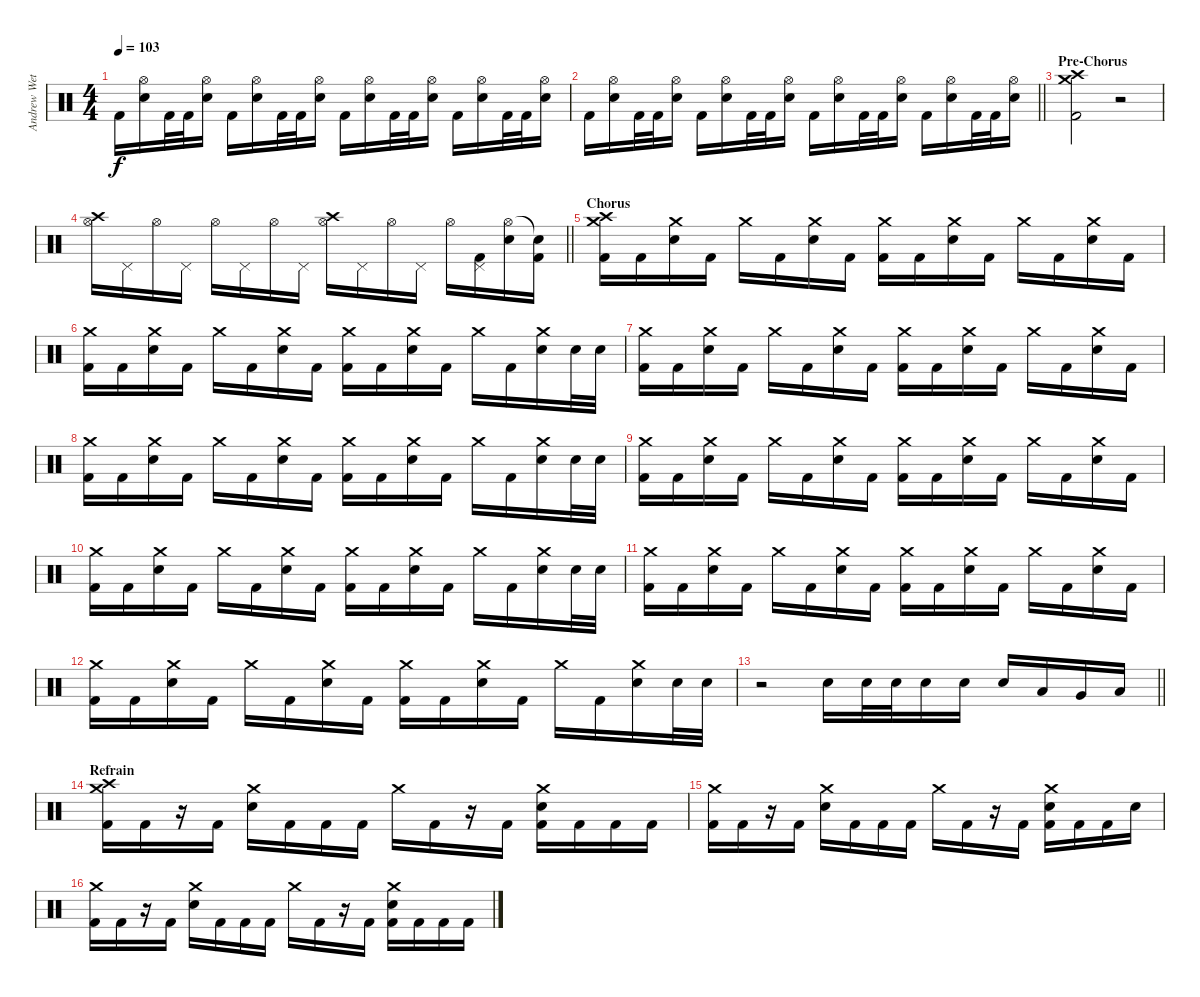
\track ("Andrew Wetzel - Drums" "Andrew Wet") {instrument percussion}
\staff {score}
\articulation defaults
\ts (4 4)
\tempo 103
\clef neutral
\ks c "Kick (hit) 2".16{dy f}
("Hi-Hat (open)" "Electric Snare (hit)").16 "Kick (hit) 2".32 "Kick (hit) 2".32 ("Hi-Hat (open)" "Electric Snare (hit)").16 "Kick (hit) 2".16 ("Hi-Hat (open)" "Electric Snare (hit)").16 "Kick (hit) 2".32 "Kick (hit) 2".32 ("Hi-Hat (open)" "Electric Snare (hit)").16 "Kick (hit) 2".16 ("Hi-Hat (open)" "Electric Snare (hit)").16 "Kick (hit) 2".32 "Kick (hit) 2".32 ("Hi-Hat (open)" "Electric Snare (hit)").16 "Kick (hit) 2".16 ("Hi-Hat (open)" "Electric Snare (hit)").16 "Kick (hit) 2".32 "Kick (hit) 2".32 ("Hi-Hat (open)" "Electric Snare (hit)").16 |
\barLineRight lightlight "Kick (hit) 2".16
("Hi-Hat (open)" "Electric Snare (hit)").16 "Kick (hit) 2".32 "Kick (hit) 2".32 ("Hi-Hat (open)" "Electric Snare (hit)").16 "Kick (hit) 2".16 ("Hi-Hat (open)" "Electric Snare (hit)").16 "Kick (hit) 2".32 "Kick (hit) 2".32 ("Hi-Hat (open)" "Electric Snare (hit)").16 "Kick (hit) 2".16 ("Hi-Hat (open)" "Electric Snare (hit)").16 "Kick (hit) 2".32 "Kick (hit) 2".32 ("Hi-Hat (open)" "Electric Snare (hit)").16 "Kick (hit) 2".16 ("Hi-Hat (open)" "Electric Snare (hit)").16 "Kick (hit) 2".32 "Kick (hit) 2".32 ("Hi-Hat (open)" "Electric Snare (hit)").16 |
\section ("" "Pre-Chorus")
("Crash medium (hit)" "Crash high (hit)" "Kick (hit) 2").2 r.2{volume 0} |
\barLineRight lightlight
("Hi-Hat (open)" "Crash high (hit)").16 "Pedal Hi-Hat (hit)".16 "Hi-Hat (open)".16 "Pedal Hi-Hat (hit)".16 "Hi-Hat (open)".16 "Pedal Hi-Hat (hit)".16{volume 13} "Hi-Hat (open)".16 "Pedal Hi-Hat (hit)".16 ("Hi-Hat (open)" "Crash high (hit)").16 "Pedal Hi-Hat (hit)".16 "Hi-Hat (open)".16 "Pedal Hi-Hat (hit)".16 "Hi-Hat (open)".16 ("Pedal Hi-Hat (hit)" "Kick (hit) 2").16 ("Hi-Hat (open)" "Electric Snare (hit)").16 ("Snare (hit)"{t} "Kick (hit) 2").16 |
\section ("" "Chorus")
("Crash high (hit)" "Crash medium (hit)" "Kick (hit) 2").16 "Kick (hit) 2".16 ("Crash medium (hit)" "Electric Snare (hit)").16 "Kick (hit) 2".16 "Crash medium (hit)".16 "Kick (hit) 2".16 ("Crash medium (hit)" "Electric Snare (hit)").16 "Kick (hit) 2".16 ("Crash medium (hit)" "Kick (hit) 2").16 "Kick (hit) 2".16 ("Crash medium (hit)" "Electric Snare (hit)").16 "Kick (hit) 2".16 "Crash medium (hit)".16 "Kick (hit) 2".16 ("Crash medium (hit)" "Electric Snare (hit)").16 "Kick (hit) 2".16 |
("Crash medium (hit)" "Kick (hit) 2").16 "Kick (hit) 2".16 ("Crash medium (hit)" "Electric Snare (hit)").16 "Kick (hit) 2".16 "Crash medium (hit)".16 "Kick (hit) 2".16 ("Crash medium (hit)" "Electric Snare (hit)").16 "Kick (hit) 2".16 ("Crash medium (hit)" "Kick (hit) 2").16 "Kick (hit) 2".16 ("Crash medium (hit)" "Electric Snare (hit)").16 "Kick (hit) 2".16 "Crash medium (hit)".16 "Kick (hit) 2".16 ("Crash medium (hit)" "Electric Snare (hit)").16 "Electric Snare (hit)".32 "Electric Snare (hit)".32 |
("Crash medium (hit)" "Kick (hit) 2").16 "Kick (hit) 2".16 ("Crash medium (hit)" "Electric Snare (hit)").16 "Kick (hit) 2".16 "Crash medium (hit)".16 "Kick (hit) 2".16 ("Crash medium (hit)" "Electric Snare (hit)").16 "Kick (hit) 2".16 ("Crash medium (hit)" "Kick (hit) 2").16 "Kick (hit) 2".16 ("Crash medium (hit)" "Electric Snare (hit)").16 "Kick (hit) 2".16 "Crash medium (hit)".16 "Kick (hit) 2".16 ("Crash medium (hit)" "Electric Snare (hit)").16 "Kick (hit) 2".16 |
("Crash medium (hit)" "Kick (hit) 2").16 "Kick (hit) 2".16 ("Crash medium (hit)" "Electric Snare (hit)").16 "Kick (hit) 2".16 "Crash medium (hit)".16 "Kick (hit) 2".16 ("Crash medium (hit)" "Electric Snare (hit)").16 "Kick (hit) 2".16 ("Crash medium (hit)" "Kick (hit) 2").16 "Kick (hit) 2".16 ("Crash medium (hit)" "Electric Snare (hit)").16 "Kick (hit) 2".16 "Crash medium (hit)".16 "Kick (hit) 2".16 ("Crash medium (hit)" "Electric Snare (hit)").16 "Electric Snare (hit)".32 "Electric Snare (hit)".32 |
("Crash medium (hit)" "Kick (hit) 2").16 "Kick (hit) 2".16 ("Crash medium (hit)" "Electric Snare (hit)").16 "Kick (hit) 2".16 "Crash medium (hit)".16 "Kick (hit) 2".16 ("Crash medium (hit)" "Electric Snare (hit)").16 "Kick (hit) 2".16 ("Crash medium (hit)" "Kick (hit) 2").16 "Kick (hit) 2".16 ("Crash medium (hit)" "Electric Snare (hit)").16 "Kick (hit) 2".16 "Crash medium (hit)".16 "Kick (hit) 2".16 ("Crash medium (hit)" "Electric Snare (hit)").16 "Kick (hit) 2".16 |
("Crash medium (hit)" "Kick (hit) 2").16 "Kick (hit) 2".16 ("Crash medium (hit)" "Electric Snare (hit)").16 "Kick (hit) 2".16 "Crash medium (hit)".16 "Kick (hit) 2".16 ("Crash medium (hit)" "Electric Snare (hit)").16 "Kick (hit) 2".16 ("Crash medium (hit)" "Kick (hit) 2").16 "Kick (hit) 2".16 ("Crash medium (hit)" "Electric Snare (hit)").16 "Kick (hit) 2".16 "Crash medium (hit)".16 "Kick (hit) 2".16 ("Crash medium (hit)" "Electric Snare (hit)").16 "Electric Snare (hit)".32 "Electric Snare (hit)".32 |
("Crash medium (hit)" "Kick (hit) 2").16 "Kick (hit) 2".16 ("Crash medium (hit)" "Electric Snare (hit)").16 "Kick (hit) 2".16 "Crash medium (hit)".16 "Kick (hit) 2".16 ("Crash medium (hit)" "Electric Snare (hit)").16 "Kick (hit) 2".16 ("Crash medium (hit)" "Kick (hit) 2").16 "Kick (hit) 2".16 ("Crash medium (hit)" "Electric Snare (hit)").16 "Kick (hit) 2".16 "Crash medium (hit)".16 "Kick (hit) 2".16 ("Crash medium (hit)" "Electric Snare (hit)").16 "Kick (hit) 2".16 |
("Crash medium (hit)" "Kick (hit) 2").16 "Kick (hit) 2".16 ("Crash medium (hit)" "Electric Snare (hit)").16 "Kick (hit) 2".16 "Crash medium (hit)".16 "Kick (hit) 2".16 ("Crash medium (hit)" "Electric Snare (hit)").16 "Kick (hit) 2".16 ("Crash medium (hit)" "Kick (hit) 2").16 "Kick (hit) 2".16 ("Crash medium (hit)" "Electric Snare (hit)").16 "Kick (hit) 2".16 "Crash medium (hit)".16 "Kick (hit) 2".16 ("Crash medium (hit)" "Electric Snare (hit)").16 "Electric Snare (hit)".32 "Electric Snare (hit)".32 |
\barLineRight lightlight
r.2 "Electric Snare (hit)".16 "Electric Snare (hit)".32 "Electric Snare (hit)".32 "Electric Snare (hit)".16 "Electric Snare (hit)".16 "Electric Snare (hit)".16 "Low Tom (hit)".16 "Very Low Tom (hit)".16 "Low Floor Tom (hit)".16 |
\section ("" "Refrain")
("Crash high (hit)" "Crash medium (hit)" "Kick (hit) 2").16 "Kick (hit) 2".16 r.16 "Kick (hit) 2".16 ("Crash medium (hit)" "Electric Snare (hit)").16 "Kick (hit) 2".16 "Kick (hit) 2".16 "Kick (hit) 2".16 "Crash medium (hit)".16 "Kick (hit) 2".16 r.16 "Kick (hit) 2".16 ("Crash medium (hit)" "Electric Snare (hit)" "Kick (hit) 2").16 "Kick (hit) 2".16 "Kick (hit) 2".16 "Kick (hit) 2".16 |
("Crash medium (hit)" "Kick (hit) 2").16 "Kick (hit) 2".16 r.16 "Kick (hit) 2".16 ("Crash medium (hit)" "Electric Snare (hit)").16 "Kick (hit) 2".16 "Kick (hit) 2".16 "Kick (hit) 2".16 "Crash medium (hit)".16 "Kick (hit) 2".16 r.16 "Kick (hit) 2".16 ("Crash medium (hit)" "Electric Snare (hit)" "Kick (hit) 2").16 "Kick (hit) 2".16 "Kick (hit) 2".16 "Electric Snare (hit)".16 |
("Crash medium (hit)" "Kick (hit) 2").16 "Kick (hit) 2".16 r.16 "Kick (hit) 2".16 ("Crash medium (hit)" "Electric Snare (hit)").16 "Kick (hit) 2".16 "Kick (hit) 2".16 "Kick (hit) 2".16 "Crash medium (hit)".16 "Kick (hit) 2".16 r.16 "Kick (hit) 2".16 ("Crash medium (hit)" "Electric Snare (hit)" "Kick (hit) 2").16 "Kick (hit) 2".16 "Kick (hit) 2".16 "Kick (hit) 2".16
